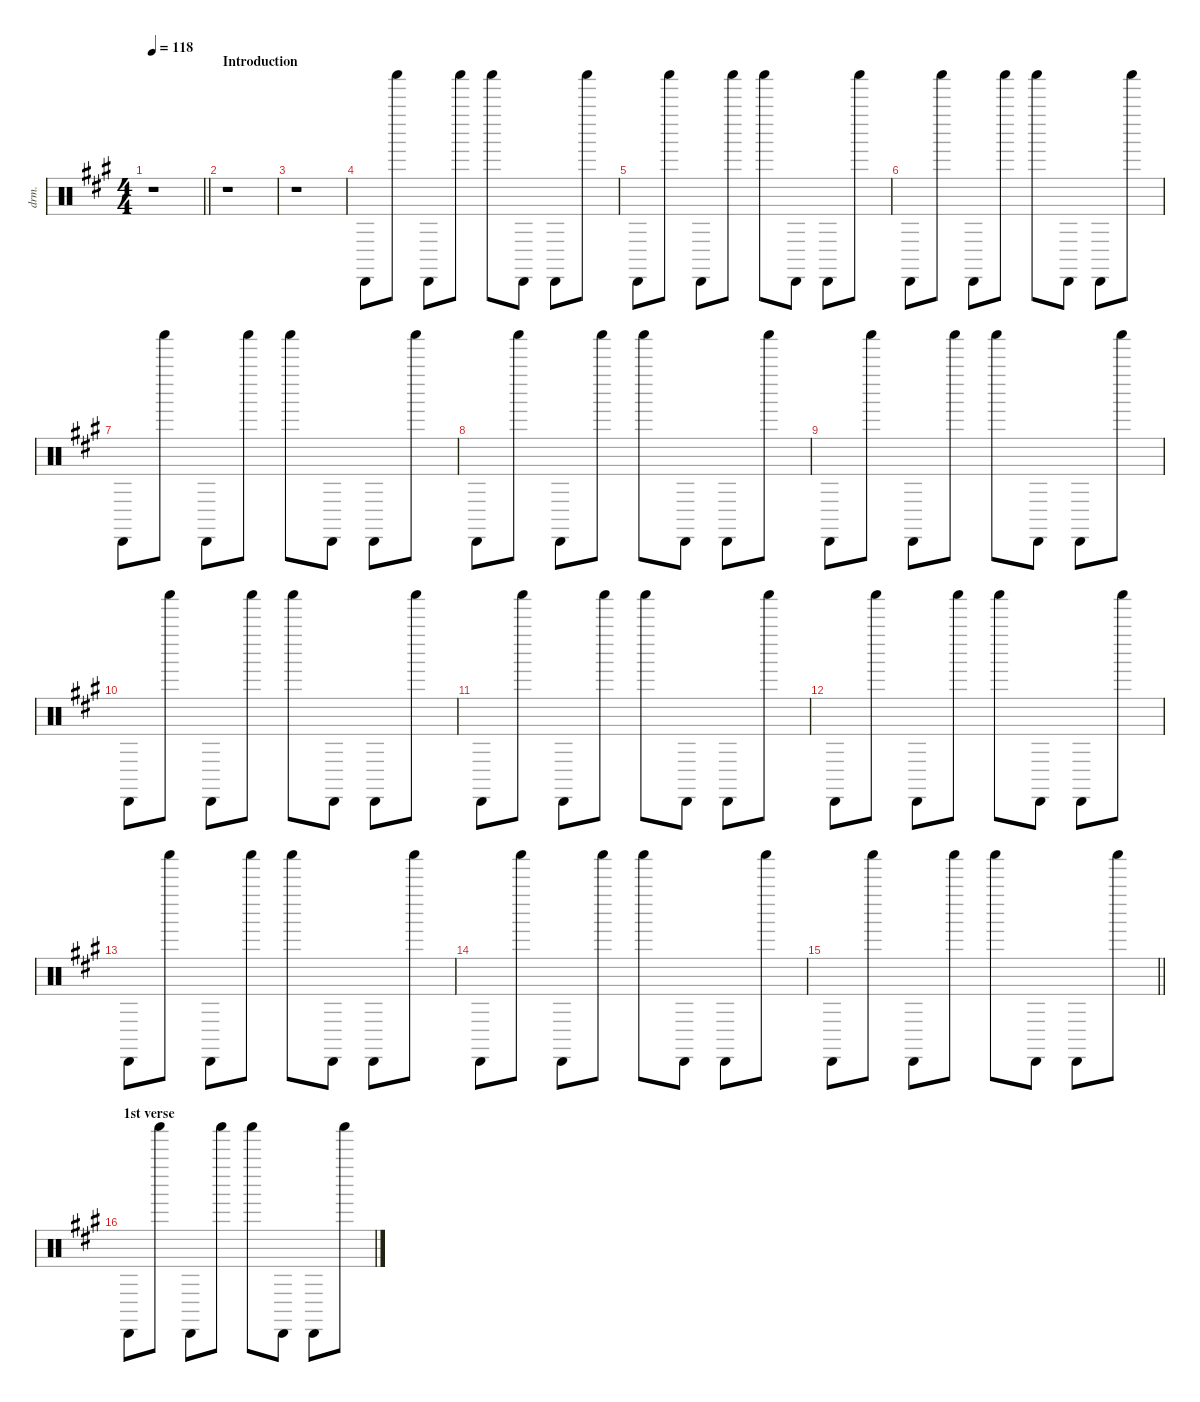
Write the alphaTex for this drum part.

\defaultSystemsLayout 4
\hideDynamics
\bracketExtendMode nobrackets
\otherSystemsTrackNameOrientation horizontal
\track ("shaker" "drm.") {instrument percussion}
\staff {score}
\articulation defaults
\ts (4 4)
\beaming (8 2 2 2 2)
\tempo 118
\clef neutral
\barLineRight lightlight
\ks f#minor
r.1{dy f} |
\section ("" "Introduction")
r.1 |
r.1 |
"Cabasa (hit)"{acc forcenatural}.8 "Shaker (hit)"{acc forcenatural}.8 "Cabasa (hit)"{acc forcenatural}.8{dy mp} "Shaker (hit)"{acc forcenatural}.8{dy f} "Shaker (hit)"{acc forcenatural}.8{dy p} "Cabasa (hit)"{acc forcenatural}.8{dy f} "Cabasa (hit)"{acc forcenatural}.8 "Shaker (hit)"{acc forcenatural}.8 |
"Cabasa (hit)"{acc forcenatural}.8 "Shaker (hit)"{acc forcenatural}.8 "Cabasa (hit)"{acc forcenatural}.8{dy mp} "Shaker (hit)"{acc forcenatural}.8{dy f} "Shaker (hit)"{acc forcenatural}.8{dy p} "Cabasa (hit)"{acc forcenatural}.8{dy f} "Cabasa (hit)"{acc forcenatural}.8 "Shaker (hit)"{acc forcenatural}.8 |
"Cabasa (hit)"{acc forcenatural}.8 "Shaker (hit)"{acc forcenatural}.8 "Cabasa (hit)"{acc forcenatural}.8{dy mp} "Shaker (hit)"{acc forcenatural}.8{dy f} "Shaker (hit)"{acc forcenatural}.8{dy p} "Cabasa (hit)"{acc forcenatural}.8{dy f} "Cabasa (hit)"{acc forcenatural}.8 "Shaker (hit)"{acc forcenatural}.8 |
"Cabasa (hit)"{acc forcenatural}.8 "Shaker (hit)"{acc forcenatural}.8 "Cabasa (hit)"{acc forcenatural}.8{dy mp} "Shaker (hit)"{acc forcenatural}.8{dy f} "Shaker (hit)"{acc forcenatural}.8{dy p} "Cabasa (hit)"{acc forcenatural}.8{dy f} "Cabasa (hit)"{acc forcenatural}.8 "Shaker (hit)"{acc forcenatural}.8 |
"Cabasa (hit)"{acc forcenatural}.8 "Shaker (hit)"{acc forcenatural}.8 "Cabasa (hit)"{acc forcenatural}.8{dy mp} "Shaker (hit)"{acc forcenatural}.8{dy f} "Shaker (hit)"{acc forcenatural}.8{dy p} "Cabasa (hit)"{acc forcenatural}.8{dy f} "Cabasa (hit)"{acc forcenatural}.8 "Shaker (hit)"{acc forcenatural}.8 |
"Cabasa (hit)"{acc forcenatural}.8 "Shaker (hit)"{acc forcenatural}.8 "Cabasa (hit)"{acc forcenatural}.8{dy mp} "Shaker (hit)"{acc forcenatural}.8{dy f} "Shaker (hit)"{acc forcenatural}.8{dy p} "Cabasa (hit)"{acc forcenatural}.8{dy f} "Cabasa (hit)"{acc forcenatural}.8 "Shaker (hit)"{acc forcenatural}.8 |
"Cabasa (hit)"{acc forcenatural}.8 "Shaker (hit)"{acc forcenatural}.8 "Cabasa (hit)"{acc forcenatural}.8{dy mp} "Shaker (hit)"{acc forcenatural}.8{dy f} "Shaker (hit)"{acc forcenatural}.8{dy p} "Cabasa (hit)"{acc forcenatural}.8{dy f} "Cabasa (hit)"{acc forcenatural}.8 "Shaker (hit)"{acc forcenatural}.8 |
"Cabasa (hit)"{acc forcenatural}.8 "Shaker (hit)"{acc forcenatural}.8 "Cabasa (hit)"{acc forcenatural}.8{dy mp} "Shaker (hit)"{acc forcenatural}.8{dy f} "Shaker (hit)"{acc forcenatural}.8{dy p} "Cabasa (hit)"{acc forcenatural}.8{dy f} "Cabasa (hit)"{acc forcenatural}.8 "Shaker (hit)"{acc forcenatural}.8 |
"Cabasa (hit)"{acc forcenatural}.8 "Shaker (hit)"{acc forcenatural}.8 "Cabasa (hit)"{acc forcenatural}.8{dy mp} "Shaker (hit)"{acc forcenatural}.8{dy f} "Shaker (hit)"{acc forcenatural}.8{dy p} "Cabasa (hit)"{acc forcenatural}.8{dy f} "Cabasa (hit)"{acc forcenatural}.8 "Shaker (hit)"{acc forcenatural}.8 |
"Cabasa (hit)"{acc forcenatural}.8 "Shaker (hit)"{acc forcenatural}.8 "Cabasa (hit)"{acc forcenatural}.8{dy mp} "Shaker (hit)"{acc forcenatural}.8{dy f} "Shaker (hit)"{acc forcenatural}.8{dy p} "Cabasa (hit)"{acc forcenatural}.8{dy f} "Cabasa (hit)"{acc forcenatural}.8 "Shaker (hit)"{acc forcenatural}.8 |
"Cabasa (hit)"{acc forcenatural}.8 "Shaker (hit)"{acc forcenatural}.8 "Cabasa (hit)"{acc forcenatural}.8{dy mp} "Shaker (hit)"{acc forcenatural}.8{dy f} "Shaker (hit)"{acc forcenatural}.8{dy p} "Cabasa (hit)"{acc forcenatural}.8{dy f} "Cabasa (hit)"{acc forcenatural}.8 "Shaker (hit)"{acc forcenatural}.8 |
\barLineRight lightlight "Cabasa (hit)"{acc forcenatural}.8 "Shaker (hit)"{acc forcenatural}.8 "Cabasa (hit)"{acc forcenatural}.8{dy mp} "Shaker (hit)"{acc forcenatural}.8{dy f} "Shaker (hit)"{acc forcenatural}.8{dy p} "Cabasa (hit)"{acc forcenatural}.8{dy f} "Cabasa (hit)"{acc forcenatural}.8 "Shaker (hit)"{acc forcenatural}.8
|
\section ("" "1st verse")
"Cabasa (hit)"{acc forcenatural}.8 "Shaker (hit)"{acc forcenatural}.8 "Cabasa (hit)"{acc forcenatural}.8{dy mp} "Shaker (hit)"{acc forcenatural}.8{dy f} "Shaker (hit)"{acc forcenatural}.8{dy p} "Cabasa (hit)"{acc forcenatural}.8{dy f} "Cabasa (hit)"{acc forcenatural}.8 "Shaker (hit)"{acc forcenatural}.8
